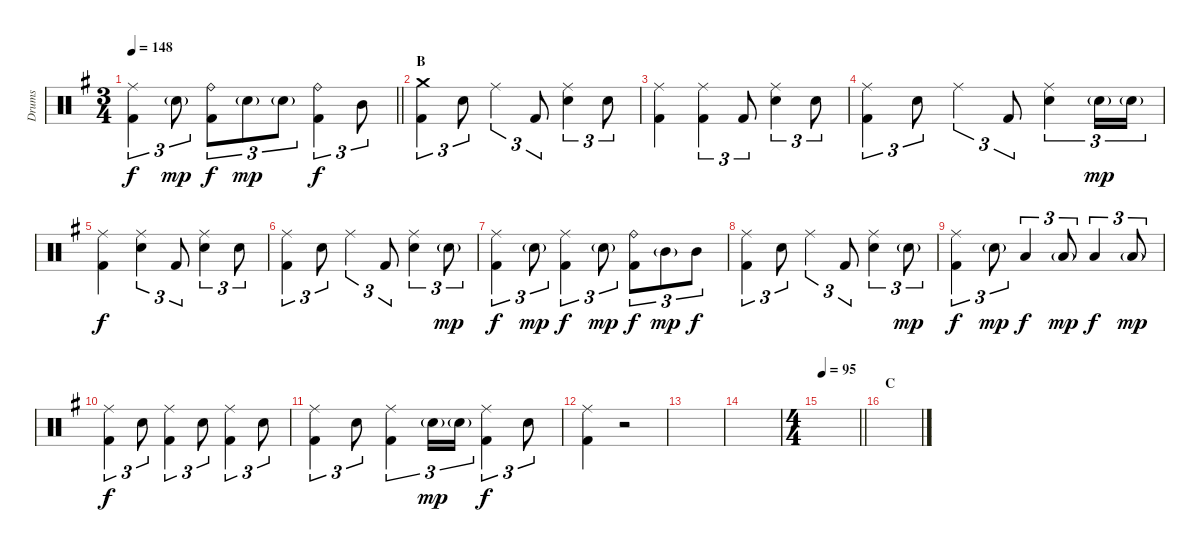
\track ("Drums" "Drums") {instrument percussion}
\staff {score}
\articulation defaults
\ts (3 4)
\tempo 148
\clef neutral
\barLineRight lightlight
\ks g
("Ride (middle)" "Kick (hit) 2").4{tu (3 2) dy f} "Electric Snare (hit)"{g}.8{tu (3 2) dy mp} ("Ride (bell)" "Kick (hit) 2").8{tu (3 2) dy f} "Electric Snare (hit)"{g}.8{tu (3 2) dy mp} "Electric Snare (hit)"{g}.8{tu (3 2)} ("Ride (bell)" "Kick (hit) 2").4{tu (3 2) dy f} "Mid Tom (hit)".8{tu (3 2)} |
\section ("" "B")
("Crash medium (hit)" "Kick (hit) 2").4{tu (3 2)} "Electric Snare (hit)".8{tu (3 2)} "Ride (middle)".4{tu (3 2)} "Kick (hit) 2".8{tu (3 2)} ("Electric Snare (hit)" "Ride (middle)").4{tu (3 2)} "Electric Snare (hit)".8{tu (3 2)} |
("Kick (hit) 2" "Ride (middle)").4 ("Kick (hit) 2" "Ride (middle)").4{tu (3 2)} "Kick (hit) 2".8{tu (3 2)} ("Electric Snare (hit)" "Ride (middle)").4{tu (3 2)} "Electric Snare (hit)".8{tu (3 2)} |
("Ride (middle)" "Kick (hit) 2").4{tu (3 2)} "Electric Snare (hit)".8{tu (3 2)} "Ride (middle)".4{tu (3 2)} "Kick (hit) 2".8{tu (3 2)} ("Electric Snare (hit)" "Ride (middle)").4{tu (3 2)} "Electric Snare (hit)"{g}.16{tu (3 2) dy mp} "Electric Snare (hit)"{g}.16{tu (3 2)} |
("Ride (middle)" "Kick (hit) 2").4{dy f} ("Ride (middle)" "Electric Snare (hit)").4{tu (3 2)} "Kick (hit) 2".8{tu (3 2)} ("Electric Snare (hit)" "Ride (middle)").4{tu (3 2)} "Electric Snare (hit)".8{tu (3 2)} |
("Ride (middle)" "Kick (hit) 2").4{tu (3 2)} "Electric Snare (hit)".8{tu (3 2)} "Ride (middle)".4{tu (3 2)} "Kick (hit) 2".8{tu (3 2)} ("Ride (middle)" "Electric Snare (hit)").4{tu (3 2)} "Electric Snare (hit)"{g}.8{tu (3 2) dy mp} |
("Ride (middle)" "Kick (hit) 2").4{tu (3 2) dy f} "Electric Snare (hit)"{g}.8{tu (3 2) dy mp} ("Ride (middle)" "Kick (hit) 2").4{tu (3 2) dy f} "Electric Snare (hit)"{g}.8{tu (3 2) dy mp} ("Ride (bell)" "Kick (hit) 2").8{tu (3 2) dy f} "Mid Tom (hit)"{g}.8{tu (3 2) dy mp} "Mid Tom (hit)".8{tu (3 2) dy f} |
("Ride (middle)" "Kick (hit) 2").4{tu (3 2)} "Electric Snare (hit)".8{tu (3 2)} "Ride (middle)".4{tu (3 2)} "Kick (hit) 2".8{tu (3 2)} ("Ride (middle)" "Electric Snare (hit)").4{tu (3 2)} "Electric Snare (hit)"{g}.8{tu (3 2) dy mp} |
("Ride (middle)" "Kick (hit) 2").4{tu (3 2) dy f} "Electric Snare (hit)"{g}.8{tu (3 2) dy mp} "Low Tom (hit)".4{tu (3 2) dy f} "Low Tom (hit)"{g}.8{tu (3 2) dy mp} "Low Floor Tom (hit)".4{tu (3 2) dy f} "Low Floor Tom (hit)"{g}.8{tu (3 2) dy mp} |
("Kick (hit) 2" "Ride (middle)").4{tu (3 2) dy f} "Electric Snare (hit)".8{tu (3 2)} ("Kick (hit) 2" "Ride (middle)").4{tu (3 2)} "Electric Snare (hit)".8{tu (3 2)} ("Kick (hit) 2" "Ride (middle)").4{tu (3 2)} "Electric Snare (hit)".8{tu (3 2)} |
("Kick (hit) 2" "Ride (middle)").4{tu (3 2)} "Electric Snare (hit)".8{tu (3 2)} ("Kick (hit) 2" "Ride (middle)").4{tu (3 2)} "Electric Snare (hit)"{g}.16{tu (3 2) dy mp} "Electric Snare (hit)"{g}.16{tu (3 2)} ("Kick (hit) 2" "Ride (middle)").4{tu (3 2) dy f} "Electric Snare (hit)".8{tu (3 2)} |
("Ride (middle)" "Kick (hit) 2").4 r.2 |
|
|
\ts (4 4)
\tempo 95
\barLineRight lightlight
|
\section ("" "C")
